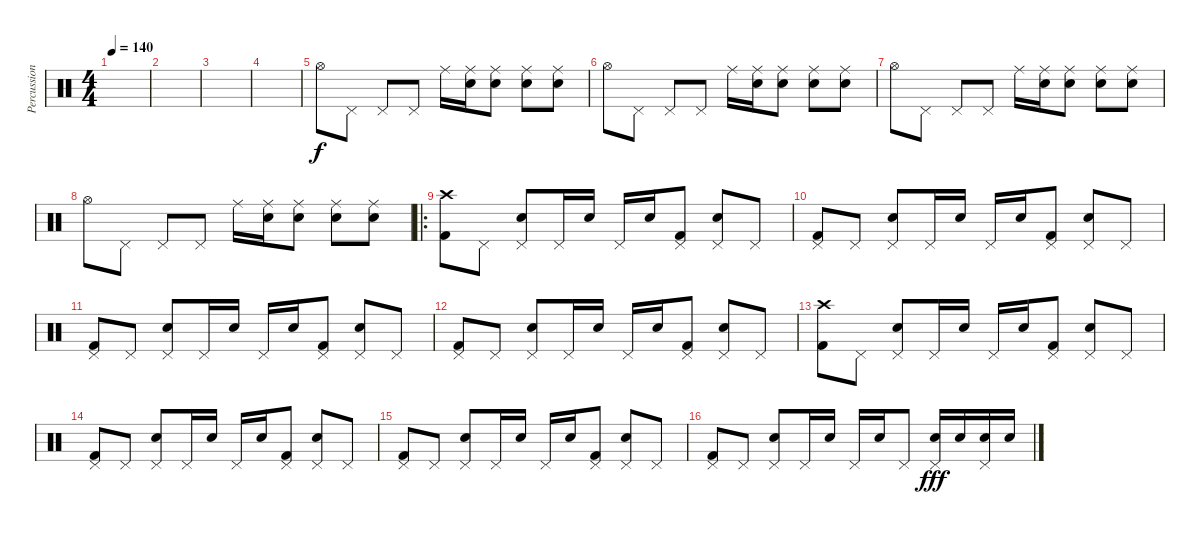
\track ("Percussion" "Percussion") {instrument percussion}
\staff {score}
\articulation defaults
\ts (4 4)
\tempo 140
\clef neutral
\ks c
|
|
|
|
"Hi-Hat (open)".8 "Pedal Hi-Hat (hit)".8 "Pedal Hi-Hat (hit)".8 "Pedal Hi-Hat (hit)".8 "Ride (middle)".16 ("Ride (middle)" "Electric Snare (hit)").16 ("Ride (middle)" "Snare (hit) 2").8 ("Ride (middle)" "Electric Snare (hit)").8 ("Ride (middle)" "Snare (hit) 2").8 |
"Hi-Hat (open)".8 "Pedal Hi-Hat (hit)".8 "Pedal Hi-Hat (hit)".8 "Pedal Hi-Hat (hit)".8 "Ride (middle)".16 ("Ride (middle)" "Electric Snare (hit)").16 ("Ride (middle)" "Snare (hit) 2").8 ("Ride (middle)" "Electric Snare (hit)").8 ("Ride (middle)" "Snare (hit) 2").8 |
"Hi-Hat (open)".8 "Pedal Hi-Hat (hit)".8 "Pedal Hi-Hat (hit)".8 "Pedal Hi-Hat (hit)".8 "Ride (middle)".16 ("Ride (middle)" "Electric Snare (hit)").16 ("Ride (middle)" "Snare (hit) 2").8 ("Ride (middle)" "Electric Snare (hit)").8 ("Ride (middle)" "Snare (hit) 2").8 |
"Hi-Hat (open)".8 "Pedal Hi-Hat (hit)".8 "Pedal Hi-Hat (hit)".8 "Pedal Hi-Hat (hit)".8 "Ride (middle)".16 ("Ride (middle)" "Electric Snare (hit)").16 ("Ride (middle)" "Snare (hit) 2").8 ("Ride (middle)" "Electric Snare (hit)").8 ("Ride (middle)" "Snare (hit) 2").8 |
\ro
("Crash high (hit)" "Kick (hit) 2").8 "Pedal Hi-Hat (hit)".8 ("Pedal Hi-Hat (hit)" "Electric Snare (hit)").8 "Pedal Hi-Hat (hit)".16 "Electric Snare (hit)".16 "Pedal Hi-Hat (hit)".16 "Electric Snare (hit)".16 ("Pedal Hi-Hat (hit)" "Kick (hit) 2").8 ("Pedal Hi-Hat (hit)" "Electric Snare (hit)").8 "Pedal Hi-Hat (hit)".8 |
("Pedal Hi-Hat (hit)" "Kick (hit) 2").8 "Pedal Hi-Hat (hit)".8 ("Pedal Hi-Hat (hit)" "Electric Snare (hit)").8 "Pedal Hi-Hat (hit)".16 "Electric Snare (hit)".16 "Pedal Hi-Hat (hit)".16 "Electric Snare (hit)".16 ("Pedal Hi-Hat (hit)" "Kick (hit) 2").8 ("Pedal Hi-Hat (hit)" "Electric Snare (hit)").8 "Pedal Hi-Hat (hit)".8 |
("Pedal Hi-Hat (hit)" "Kick (hit) 2").8 "Pedal Hi-Hat (hit)".8 ("Pedal Hi-Hat (hit)" "Electric Snare (hit)").8 "Pedal Hi-Hat (hit)".16 "Electric Snare (hit)".16 "Pedal Hi-Hat (hit)".16 "Electric Snare (hit)".16 ("Pedal Hi-Hat (hit)" "Kick (hit) 2").8 ("Pedal Hi-Hat (hit)" "Electric Snare (hit)").8 "Pedal Hi-Hat (hit)".8 |
("Pedal Hi-Hat (hit)" "Kick (hit) 2").8 "Pedal Hi-Hat (hit)".8 ("Pedal Hi-Hat (hit)" "Electric Snare (hit)").8 "Pedal Hi-Hat (hit)".16 "Electric Snare (hit)".16 "Pedal Hi-Hat (hit)".16 "Electric Snare (hit)".16 ("Pedal Hi-Hat (hit)" "Kick (hit) 2").8 ("Pedal Hi-Hat (hit)" "Electric Snare (hit)").8 "Pedal Hi-Hat (hit)".8 |
("Crash high (hit)" "Kick (hit) 2").8 "Pedal Hi-Hat (hit)".8 ("Pedal Hi-Hat (hit)" "Electric Snare (hit)").8 "Pedal Hi-Hat (hit)".16 "Electric Snare (hit)".16 "Pedal Hi-Hat (hit)".16 "Electric Snare (hit)".16 ("Pedal Hi-Hat (hit)" "Kick (hit) 2").8 ("Pedal Hi-Hat (hit)" "Electric Snare (hit)").8 "Pedal Hi-Hat (hit)".8 |
("Pedal Hi-Hat (hit)" "Kick (hit) 2").8 "Pedal Hi-Hat (hit)".8 ("Pedal Hi-Hat (hit)" "Electric Snare (hit)").8 "Pedal Hi-Hat (hit)".16 "Electric Snare (hit)".16 "Pedal Hi-Hat (hit)".16 "Electric Snare (hit)".16 ("Pedal Hi-Hat (hit)" "Kick (hit) 2").8 ("Pedal Hi-Hat (hit)" "Electric Snare (hit)").8 "Pedal Hi-Hat (hit)".8 |
("Pedal Hi-Hat (hit)" "Kick (hit) 2").8 "Pedal Hi-Hat (hit)".8 ("Pedal Hi-Hat (hit)" "Electric Snare (hit)").8 "Pedal Hi-Hat (hit)".16 "Electric Snare (hit)".16 "Pedal Hi-Hat (hit)".16 "Electric Snare (hit)".16 ("Pedal Hi-Hat (hit)" "Kick (hit) 2").8 ("Pedal Hi-Hat (hit)" "Electric Snare (hit)").8 "Pedal Hi-Hat (hit)".8 |
("Pedal Hi-Hat (hit)" "Kick (hit) 2").8 "Pedal Hi-Hat (hit)".8 ("Pedal Hi-Hat (hit)" "Electric Snare (hit)").8 "Pedal Hi-Hat (hit)".16 "Electric Snare (hit)".16 "Pedal Hi-Hat (hit)".16 "Electric Snare (hit)".16 "Pedal Hi-Hat (hit)".8 ("Pedal Hi-Hat (hit)" "Electric Snare (hit)").16{dy fff} "Electric Snare (hit)".16 ("Pedal Hi-Hat (hit)" "Electric Snare (hit)").16 "Electric Snare (hit)".16
